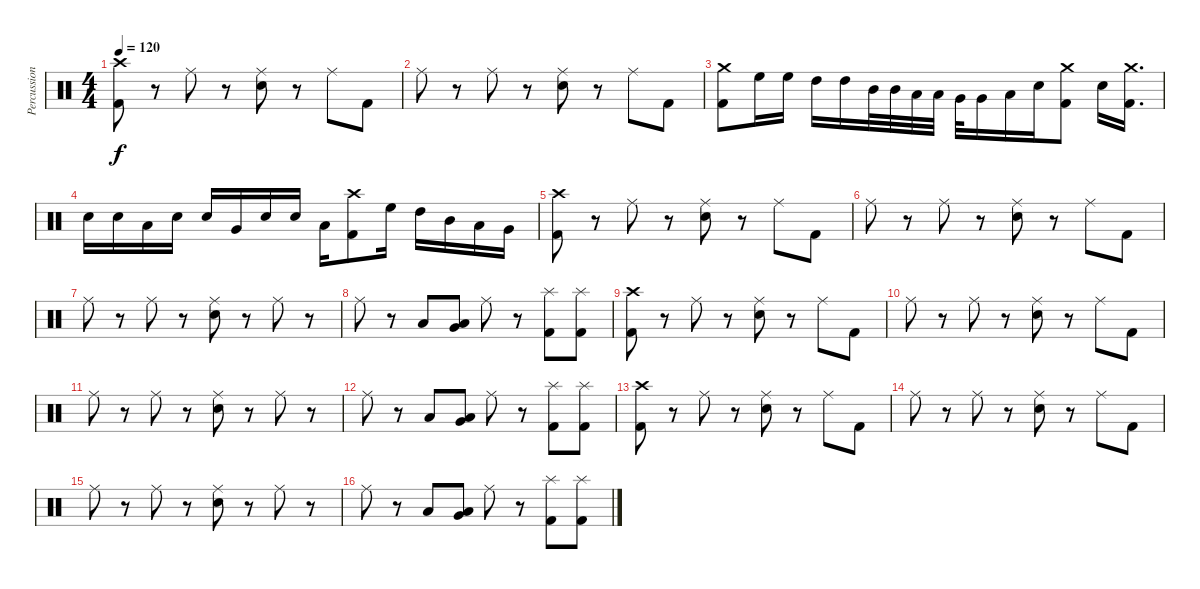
\track ("Percussion" "Percussion") {instrument percussion}
\staff {score}
\articulation defaults
\ts (4 4)
\tempo 120
\clef neutral
\ks c
("Kick (hit) 2" "Crash high (hit)").8{dy f} r.8 "Ride (middle)".8 r.8 ("Electric Snare (hit)" "Ride (middle)").8 r.8 "Ride (middle)".8 "Kick (hit) 2".8 |
"Ride (middle)".8 r.8 "Ride (middle)".8 r.8 ("Electric Snare (hit)" "Ride (middle)").8 r.8 "Ride (middle)".8 "Kick (hit) 2".8 |
("Kick (hit) 2" "Crash medium (hit)").8 "High Floor Tom (hit)".16 "High Floor Tom (hit)".16 "High Tom (hit)".16 "High Tom (hit)".16 "Mid Tom (hit)".32 "Mid Tom (hit)".32 "Low Tom (hit)".32 "Low Tom (hit)".32 "Very Low Tom (hit)".32 "Very Low Tom (hit)".16 "Low Floor Tom (hit)".16 "Electric Snare (hit)".16 ("Crash medium (hit)" "Kick (hit) 2").8 "Electric Snare (hit)".16 ("Crash medium (hit)" "Kick (hit) 2").16{d} |
"Electric Snare (hit)".16 "Electric Snare (hit)".16 "Low Tom (hit)".16 "Electric Snare (hit)".16 "Electric Snare (hit)".16 "Very Low Tom (hit)".16 "Electric Snare (hit)".16 "Electric Snare (hit)".16 "Low Floor Tom (hit)".16 ("Crash high (hit)" "Kick (hit) 2").8 "High Floor Tom (hit)".16 "High Tom (hit)".16 "Mid Tom (hit)".16 "Low Tom (hit)".16 "Very Low Tom (hit)".16 |
("Kick (hit) 2" "Crash high (hit)").8 r.8 "Ride (middle)".8 r.8 ("Electric Snare (hit)" "Ride (middle)").8 r.8 "Ride (middle)".8 "Kick (hit) 2".8 |
"Ride (middle)".8 r.8 "Ride (middle)".8 r.8 ("Electric Snare (hit)" "Ride (middle)").8 r.8 "Ride (middle)".8 "Kick (hit) 2".8 |
"Ride (middle)".8 r.8 "Ride (middle)".8 r.8 ("Electric Snare (hit)" "Ride (middle)").8 r.8 "Ride (middle)".8 r.8 |
"Ride (middle)".8 r.8 "Low Tom (hit)".8 ("Very Low Tom (hit)" "Low Floor Tom (hit)").8 "Ride (middle)".8 r.8 ("Splash (hit)" "Kick (hit) 2").8 ("Splash (hit)" "Kick (hit) 2").8 |
("Kick (hit) 2" "Crash high (hit)").8 r.8 "Ride (middle)".8 r.8 ("Electric Snare (hit)" "Ride (middle)").8 r.8 "Ride (middle)".8 "Kick (hit) 2".8 |
"Ride (middle)".8 r.8 "Ride (middle)".8 r.8 ("Electric Snare (hit)" "Ride (middle)").8 r.8 "Ride (middle)".8 "Kick (hit) 2".8 |
"Ride (middle)".8 r.8 "Ride (middle)".8 r.8 ("Electric Snare (hit)" "Ride (middle)").8 r.8 "Ride (middle)".8 r.8 |
"Ride (middle)".8 r.8 "Low Tom (hit)".8 ("Very Low Tom (hit)" "Low Floor Tom (hit)").8 "Ride (middle)".8 r.8 ("Splash (hit)" "Kick (hit) 2").8 ("Splash (hit)" "Kick (hit) 2").8 |
("Kick (hit) 2" "Crash high (hit)").8 r.8 "Ride (middle)".8 r.8 ("Electric Snare (hit)" "Ride (middle)").8 r.8 "Ride (middle)".8 "Kick (hit) 2".8 |
"Ride (middle)".8 r.8 "Ride (middle)".8 r.8 ("Electric Snare (hit)" "Ride (middle)").8 r.8 "Ride (middle)".8 "Kick (hit) 2".8 |
"Ride (middle)".8 r.8 "Ride (middle)".8 r.8 ("Electric Snare (hit)" "Ride (middle)").8 r.8 "Ride (middle)".8 r.8 |
"Ride (middle)".8 r.8 "Low Tom (hit)".8 ("Very Low Tom (hit)" "Low Floor Tom (hit)").8 "Ride (middle)".8 r.8 ("Splash (hit)" "Kick (hit) 2").8 ("Splash (hit)" "Kick (hit) 2").8
